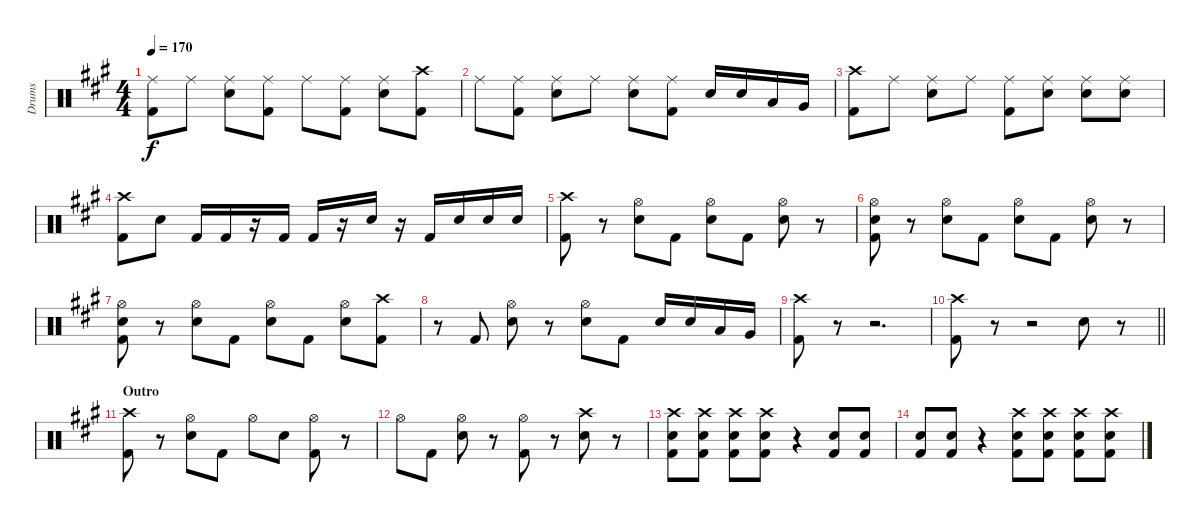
\track ("Drums" "Drums") {instrument percussion}
\staff {score}
\articulation defaults
\ts (4 4)
\tempo 170
\clef neutral
\ks a
("Ride (middle)" "Kick (hit) 2").8{dy f} "Ride (middle)".8 ("Ride (middle)" "Snare (hit) 2").8 ("Ride (middle)" "Kick (hit) 2").8 "Ride (middle)".8 ("Ride (middle)" "Kick (hit) 2").8 ("Ride (middle)" "Snare (hit) 2").8 ("Crash high (hit)" "Kick (hit) 2").8 |
"Ride (middle)".8 ("Ride (middle)" "Kick (hit) 2").8 ("Ride (middle)" "Snare (hit) 2").8 "Ride (middle)".8 ("Ride (middle)" "Snare (hit) 2").8 ("Ride (middle)" "Kick (hit) 2").8 "Snare (hit) 2".16 "Snare (hit) 2".16 "Low Tom (hit)".16 "Very Low Tom (hit)".16 |
("Crash high (hit)" "Kick (hit) 2").8 "Ride (middle)".8 ("Ride (middle)" "Snare (hit) 2").8 "Ride (middle)".8 ("Ride (middle)" "Kick (hit) 2").8 ("Ride (middle)" "Snare (hit) 2").8 ("Ride (middle)" "Snare (hit) 2").8 ("Ride (middle)" "Snare (hit) 2").8 |
("Crash high (hit)" "Kick (hit) 2").8 "Snare (hit) 2".8 "Kick (hit) 2".16 "Kick (hit) 2".16 r.16 "Kick (hit) 2".16 "Kick (hit) 2".16 r.16 "Snare (hit) 2".16 r.16 "Kick (hit) 2".16 "Snare (hit) 2".16 "Snare (hit) 2".16 "Snare (hit) 2".16 |
("Crash high (hit)" "Kick (hit) 2").8 r.8 ("Hi-Hat (open)" "Snare (hit) 2").8 "Kick (hit) 2".8 ("Hi-Hat (open)" "Snare (hit) 2").8 "Kick (hit) 2".8 ("Hi-Hat (open)" "Snare (hit) 2").8 r.8 |
("Hi-Hat (open)" "Snare (hit) 2" "Kick (hit) 2").8 r.8 ("Hi-Hat (open)" "Snare (hit) 2").8 "Kick (hit) 2".8 ("Hi-Hat (open)" "Snare (hit) 2").8 "Kick (hit) 2".8 ("Hi-Hat (open)" "Snare (hit) 2").8 r.8 |
("Hi-Hat (open)" "Snare (hit) 2" "Kick (hit) 2").8 r.8 ("Hi-Hat (open)" "Snare (hit) 2").8 "Kick (hit) 2".8 ("Hi-Hat (open)" "Snare (hit) 2").8 "Kick (hit) 2".8 ("Hi-Hat (open)" "Snare (hit) 2").8 ("Crash high (hit)" "Kick (hit) 2").8 |
r.8 "Kick (hit) 2".8 ("Hi-Hat (open)" "Snare (hit) 2").8 r.8 ("Hi-Hat (open)" "Snare (hit) 2").8 "Kick (hit) 2".8 "Snare (hit) 2".16 "Snare (hit) 2".16 "Low Tom (hit)".16 "Very Low Tom (hit)".16 |
("Crash high (hit)" "Kick (hit) 2").8 r.8 r.2{d} |
\barLineRight lightlight
("Crash high (hit)" "Kick (hit) 2").8 r.8 r.2 "Snare (hit) 2".8 r.8 |
\section ("" "Outro")
("Crash high (hit)" "Kick (hit) 2").8 r.8 ("Hi-Hat (open)" "Snare (hit) 2").8 "Kick (hit) 2".8 "Hi-Hat (open)".8 "Snare (hit) 2".8 ("Hi-Hat (open)" "Kick (hit) 2").8 r.8 |
"Hi-Hat (open)".8 "Kick (hit) 2".8 ("Hi-Hat (open)" "Snare (hit) 2").8 r.8 ("Hi-Hat (open)" "Kick (hit) 2").8 r.8 ("Crash high (hit)" "Snare (hit) 2").8 r.8 |
("Crash high (hit)" "Snare (hit) 2" "Kick (hit) 2").8 ("Crash high (hit)" "Snare (hit) 2" "Kick (hit) 2").8 ("Crash high (hit)" "Snare (hit) 2" "Kick (hit) 2").8 ("Crash high (hit)" "Snare (hit) 2" "Kick (hit) 2").8 r.4 ("Snare (hit) 2" "Kick (hit) 2").8 ("Snare (hit) 2" "Kick (hit) 2").8 |
("Snare (hit) 2" "Kick (hit) 2").8 ("Snare (hit) 2" "Kick (hit) 2").8 r.4 ("Crash high (hit)" "Snare (hit) 2" "Kick (hit) 2").8 ("Crash high (hit)" "Snare (hit) 2" "Kick (hit) 2").8 ("Crash high (hit)" "Snare (hit) 2" "Kick (hit) 2").8 ("Crash high (hit)" "Snare (hit) 2" "Kick (hit) 2").8
